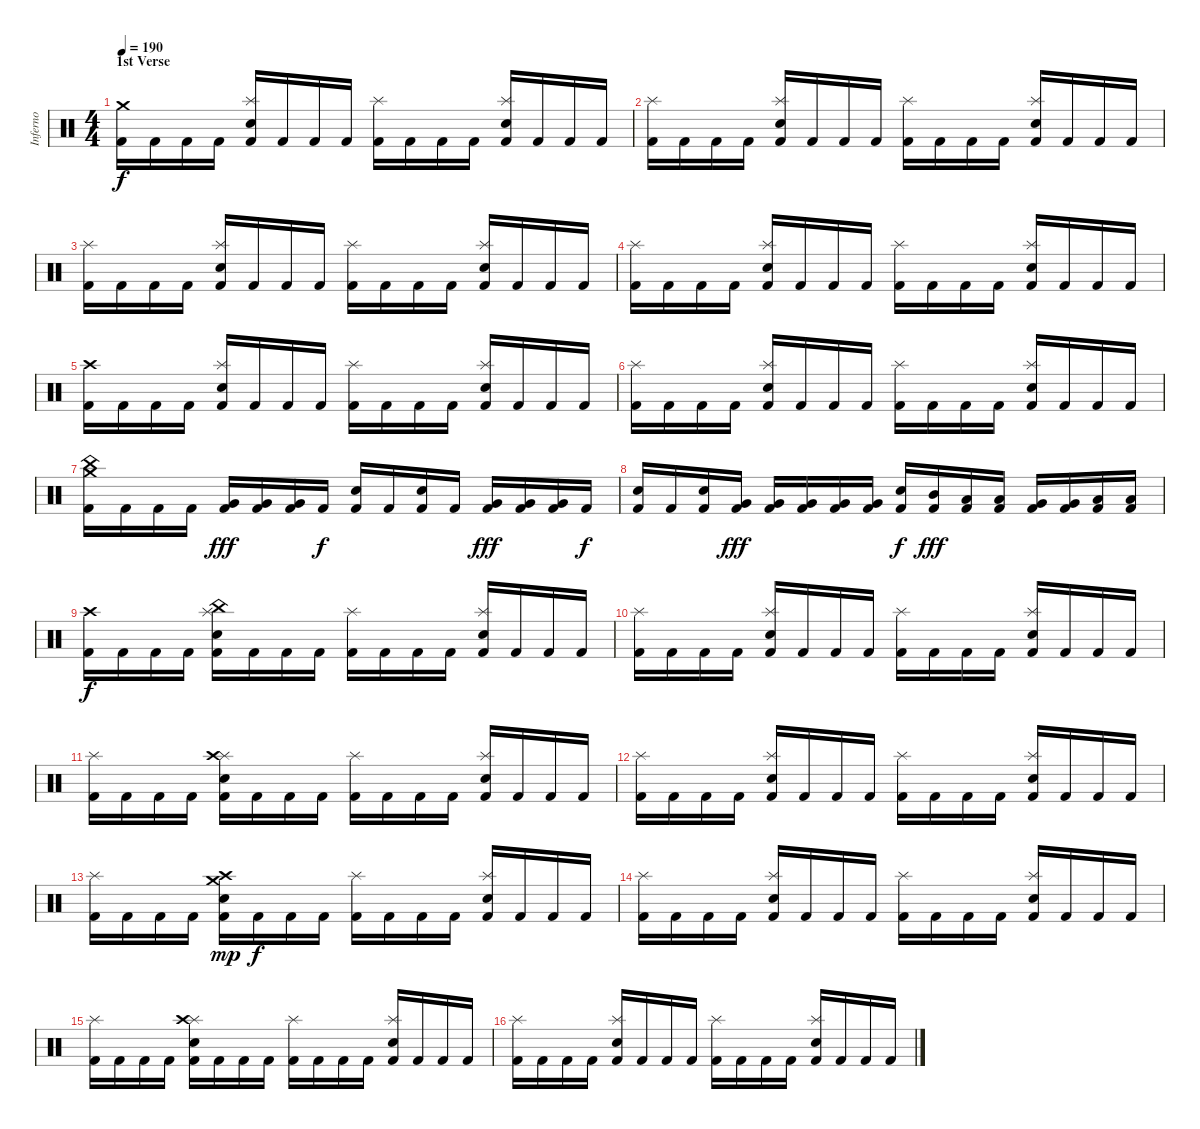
\track ("Inferno" "Inferno") {instrument percussion}
\staff {score}
\articulation defaults
\ts (4 4)
\section ("" "1st Verse ")
\tempo 190
\clef neutral
\ks c
("Crash medium (hit)" "Kick (hit) 2").16{dy f} "Kick (hit) 2".16 "Kick (hit) 2".16 "Kick (hit) 2".16 ("Splash (hit)" "Snare (hit) 2" "Kick (hit) 2").16 "Kick (hit) 2".16 "Kick (hit) 2".16 "Kick (hit) 2".16 ("Splash (hit)" "Kick (hit) 2").16 "Kick (hit) 2".16 "Kick (hit) 2".16 "Kick (hit) 2".16 ("Splash (hit)" "Snare (hit) 2" "Kick (hit) 2").16 "Kick (hit) 2".16 "Kick (hit) 2".16 "Kick (hit) 2".16 |
("Splash (hit)" "Kick (hit) 2").16 "Kick (hit) 2".16 "Kick (hit) 2".16 "Kick (hit) 2".16 ("Splash (hit)" "Snare (hit) 2" "Kick (hit) 2").16 "Kick (hit) 2".16 "Kick (hit) 2".16 "Kick (hit) 2".16 ("Splash (hit)" "Kick (hit) 2").16 "Kick (hit) 2".16 "Kick (hit) 2".16 "Kick (hit) 2".16 ("Splash (hit)" "Snare (hit) 2" "Kick (hit) 2").16 "Kick (hit) 2".16 "Kick (hit) 2".16 "Kick (hit) 2".16 |
("Splash (hit)" "Kick (hit) 2").16 "Kick (hit) 2".16 "Kick (hit) 2".16 "Kick (hit) 2".16 ("Splash (hit)" "Snare (hit) 2" "Kick (hit) 2").16 "Kick (hit) 2".16 "Kick (hit) 2".16 "Kick (hit) 2".16 ("Splash (hit)" "Kick (hit) 2").16 "Kick (hit) 2".16 "Kick (hit) 2".16 "Kick (hit) 2".16 ("Splash (hit)" "Snare (hit) 2" "Kick (hit) 2").16 "Kick (hit) 2".16 "Kick (hit) 2".16 "Kick (hit) 2".16 |
("Splash (hit)" "Kick (hit) 2").16 "Kick (hit) 2".16 "Kick (hit) 2".16 "Kick (hit) 2".16 ("Splash (hit)" "Snare (hit) 2" "Kick (hit) 2").16 "Kick (hit) 2".16 "Kick (hit) 2".16 "Kick (hit) 2".16 ("Splash (hit)" "Kick (hit) 2").16 "Kick (hit) 2".16 "Kick (hit) 2".16 "Kick (hit) 2".16 ("Splash (hit)" "Snare (hit) 2" "Kick (hit) 2").16 "Kick (hit) 2".16 "Kick (hit) 2".16 "Kick (hit) 2".16 |
("Crash high (hit)" "Kick (hit) 2").16 "Kick (hit) 2".16 "Kick (hit) 2".16 "Kick (hit) 2".16 ("Splash (hit)" "Snare (hit) 2" "Kick (hit) 2").16 "Kick (hit) 2".16 "Kick (hit) 2".16 "Kick (hit) 2".16 ("Splash (hit)" "Kick (hit) 2").16 "Kick (hit) 2".16 "Kick (hit) 2".16 "Kick (hit) 2".16 ("Splash (hit)" "Snare (hit) 2" "Kick (hit) 2").16 "Kick (hit) 2".16 "Kick (hit) 2".16 "Kick (hit) 2".16 |
("Splash (hit)" "Kick (hit) 2").16 "Kick (hit) 2".16 "Kick (hit) 2".16 "Kick (hit) 2".16 ("Splash (hit)" "Snare (hit) 2" "Kick (hit) 2").16 "Kick (hit) 2".16 "Kick (hit) 2".16 "Kick (hit) 2".16 ("Splash (hit)" "Kick (hit) 2").16 "Kick (hit) 2".16 "Kick (hit) 2".16 "Kick (hit) 2".16 ("Splash (hit)" "Snare (hit) 2" "Kick (hit) 2").16 "Kick (hit) 2".16 "Kick (hit) 2".16 "Kick (hit) 2".16 |
("Crash medium (hit)" "China (hit)" "Kick (hit) 2").16 "Kick (hit) 2".16 "Kick (hit) 2".16 "Kick (hit) 2".16 ("Very Low Tom (hit)" "Kick (hit) 2").16{dy fff} ("Very Low Tom (hit)" "Kick (hit) 2").16 ("Very Low Tom (hit)" "Kick (hit) 2").16 "Kick (hit) 2".16{dy f} ("Snare (hit) 2" "Kick (hit) 2").16 "Kick (hit) 2".16 ("Snare (hit) 2" "Kick (hit) 2").16 "Kick (hit) 2".16 ("Very Low Tom (hit)" "Kick (hit) 2").16{dy fff} ("Very Low Tom (hit)" "Kick (hit) 2").16 ("Very Low Tom (hit)" "Kick (hit) 2").16 "Kick (hit) 2".16{dy f} |
("Snare (hit) 2" "Kick (hit) 2").16 "Kick (hit) 2".16 ("Snare (hit) 2" "Kick (hit) 2").16 ("Very Low Tom (hit)" "Kick (hit) 2").16{dy fff} ("Very Low Tom (hit)" "Kick (hit) 2").16 ("Very Low Tom (hit)" "Kick (hit) 2").16 ("Very Low Tom (hit)" "Kick (hit) 2").16 ("Very Low Tom (hit)" "Kick (hit) 2").16 ("Snare (hit) 2" "Kick (hit) 2").16{dy f} ("Mid Tom (hit)" "Kick (hit) 2").16{dy fff} ("Low Tom (hit)" "Kick (hit) 2").16 ("Low Tom (hit)" "Kick (hit) 2").16 ("Very Low Tom (hit)" "Kick (hit) 2").16 ("Very Low Tom (hit)" "Kick (hit) 2").16 ("Low Floor Tom (hit)" "Kick (hit) 2").16 ("Low Floor Tom (hit)" "Kick (hit) 2").16 |
("Crash high (hit)" "Kick (hit) 2").16{dy f} "Kick (hit) 2".16 "Kick (hit) 2".16 "Kick (hit) 2".16 ("Splash (hit)" "China (hit)" "Snare (hit) 2" "Kick (hit) 2").16 "Kick (hit) 2".16 "Kick (hit) 2".16 "Kick (hit) 2".16 ("Splash (hit)" "Kick (hit) 2").16 "Kick (hit) 2".16 "Kick (hit) 2".16 "Kick (hit) 2".16 ("Splash (hit)" "Snare (hit) 2" "Kick (hit) 2").16 "Kick (hit) 2".16 "Kick (hit) 2".16 "Kick (hit) 2".16 |
("Splash (hit)" "Kick (hit) 2").16 "Kick (hit) 2".16 "Kick (hit) 2".16 "Kick (hit) 2".16 ("Splash (hit)" "Snare (hit) 2" "Kick (hit) 2").16 "Kick (hit) 2".16 "Kick (hit) 2".16 "Kick (hit) 2".16 ("Splash (hit)" "Kick (hit) 2").16 "Kick (hit) 2".16 "Kick (hit) 2".16 "Kick (hit) 2".16 ("Splash (hit)" "Snare (hit) 2" "Kick (hit) 2").16 "Kick (hit) 2".16 "Kick (hit) 2".16 "Kick (hit) 2".16 |
("Splash (hit)" "Kick (hit) 2").16 "Kick (hit) 2".16 "Kick (hit) 2".16 "Kick (hit) 2".16 ("Splash (hit)" "Crash high (hit)" "Snare (hit) 2" "Kick (hit) 2").16 "Kick (hit) 2".16 "Kick (hit) 2".16 "Kick (hit) 2".16 ("Splash (hit)" "Kick (hit) 2").16 "Kick (hit) 2".16 "Kick (hit) 2".16 "Kick (hit) 2".16 ("Splash (hit)" "Snare (hit) 2" "Kick (hit) 2").16 "Kick (hit) 2".16 "Kick (hit) 2".16 "Kick (hit) 2".16 |
("Splash (hit)" "Kick (hit) 2").16 "Kick (hit) 2".16 "Kick (hit) 2".16 "Kick (hit) 2".16 ("Splash (hit)" "Snare (hit) 2" "Kick (hit) 2").16 "Kick (hit) 2".16 "Kick (hit) 2".16 "Kick (hit) 2".16 ("Splash (hit)" "Kick (hit) 2").16 "Kick (hit) 2".16 "Kick (hit) 2".16 "Kick (hit) 2".16 ("Splash (hit)" "Snare (hit) 2" "Kick (hit) 2").16 "Kick (hit) 2".16 "Kick (hit) 2".16 "Kick (hit) 2".16 |
("Splash (hit)" "Kick (hit) 2").16 "Kick (hit) 2".16 "Kick (hit) 2".16 "Kick (hit) 2".16 ("Crash high (hit)" "Crash medium (hit)" "Snare (hit) 2" "Kick (hit) 2").16{dy mp} "Kick (hit) 2".16{dy f} "Kick (hit) 2".16 "Kick (hit) 2".16 ("Splash (hit)" "Kick (hit) 2").16 "Kick (hit) 2".16 "Kick (hit) 2".16 "Kick (hit) 2".16 ("Splash (hit)" "Snare (hit) 2" "Kick (hit) 2").16 "Kick (hit) 2".16 "Kick (hit) 2".16 "Kick (hit) 2".16 |
("Splash (hit)" "Kick (hit) 2").16 "Kick (hit) 2".16 "Kick (hit) 2".16 "Kick (hit) 2".16 ("Splash (hit)" "Snare (hit) 2" "Kick (hit) 2").16 "Kick (hit) 2".16 "Kick (hit) 2".16 "Kick (hit) 2".16 ("Splash (hit)" "Kick (hit) 2").16 "Kick (hit) 2".16 "Kick (hit) 2".16 "Kick (hit) 2".16 ("Splash (hit)" "Snare (hit) 2" "Kick (hit) 2").16 "Kick (hit) 2".16 "Kick (hit) 2".16 "Kick (hit) 2".16 |
("Splash (hit)" "Kick (hit) 2").16 "Kick (hit) 2".16 "Kick (hit) 2".16 "Kick (hit) 2".16 ("Splash (hit)" "Crash high (hit)" "Snare (hit) 2" "Kick (hit) 2").16 "Kick (hit) 2".16 "Kick (hit) 2".16 "Kick (hit) 2".16 ("Splash (hit)" "Kick (hit) 2").16 "Kick (hit) 2".16 "Kick (hit) 2".16 "Kick (hit) 2".16 ("Splash (hit)" "Snare (hit) 2" "Kick (hit) 2").16 "Kick (hit) 2".16 "Kick (hit) 2".16 "Kick (hit) 2".16 |
("Splash (hit)" "Kick (hit) 2").16 "Kick (hit) 2".16 "Kick (hit) 2".16 "Kick (hit) 2".16 ("Splash (hit)" "Snare (hit) 2" "Kick (hit) 2").16 "Kick (hit) 2".16 "Kick (hit) 2".16 "Kick (hit) 2".16 ("Splash (hit)" "Kick (hit) 2").16 "Kick (hit) 2".16 "Kick (hit) 2".16 "Kick (hit) 2".16 ("Splash (hit)" "Snare (hit) 2" "Kick (hit) 2").16 "Kick (hit) 2".16 "Kick (hit) 2".16 "Kick (hit) 2".16
